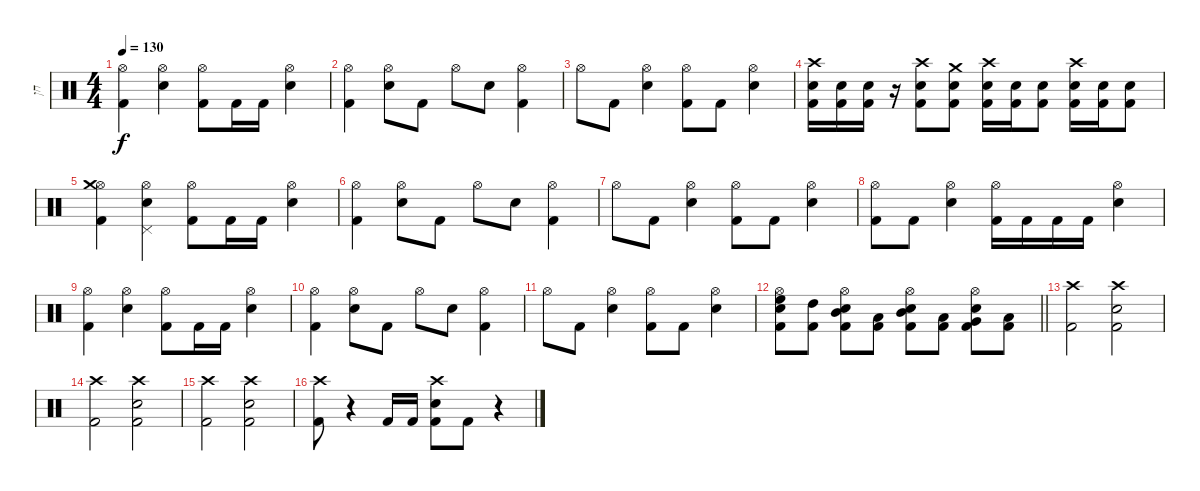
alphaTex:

\track ("חן" "חן") {instrument percussion}
\staff {score}
\articulation defaults
\ts (4 4)
\tempo 130
\clef neutral
\ks c
("Hi-Hat (open)" "Kick (hit) 2").4{dy f} ("Hi-Hat (open)" "Electric Snare (hit)").4 ("Hi-Hat (open)" "Kick (hit) 2").8 "Kick (hit) 2".16 "Kick (hit) 2".16 ("Hi-Hat (open)" "Electric Snare (hit)").4 |
("Hi-Hat (open)" "Kick (hit) 2").4 ("Hi-Hat (open)" "Electric Snare (hit)").8 "Kick (hit) 2".8 "Hi-Hat (open)".8 "Electric Snare (hit)".8 ("Hi-Hat (open)" "Kick (hit) 2").4 |
"Hi-Hat (open)".8 "Kick (hit) 2".8 ("Hi-Hat (open)" "Electric Snare (hit)").4 ("Hi-Hat (open)" "Kick (hit) 2").8 "Kick (hit) 2".8 ("Hi-Hat (open)" "Electric Snare (hit)").4 |
("Crash high (hit)" "Electric Snare (hit)" "Kick (hit) 2").16 ("Electric Snare (hit)" "Kick (hit) 2").16 ("Electric Snare (hit)" "Kick (hit) 2").16 r.16 ("Crash high (hit)" "Electric Snare (hit)" "Kick (hit) 2").8 ("Crash medium (hit)" "Electric Snare (hit)" "Kick (hit) 2").8 ("Crash high (hit)" "Electric Snare (hit)" "Kick (hit) 2").16 ("Electric Snare (hit)" "Kick (hit) 2").16 ("Electric Snare (hit)" "Kick (hit) 2").8 ("Crash high (hit)" "Electric Snare (hit)" "Kick (hit) 2").16 ("Electric Snare (hit)" "Kick (hit) 2").16 ("Electric Snare (hit)" "Kick (hit) 2").8 |
("Hi-Hat (open)" "Crash medium (hit)" "Kick (hit) 2").4 ("Hi-Hat (open)" "Electric Snare (hit)" "Pedal Hi-Hat (hit)").4 ("Hi-Hat (open)" "Kick (hit) 2").8 "Kick (hit) 2".16 "Kick (hit) 2".16 ("Hi-Hat (open)" "Electric Snare (hit)").4 |
("Hi-Hat (open)" "Kick (hit) 2").4 ("Hi-Hat (open)" "Electric Snare (hit)").8 "Kick (hit) 2".8 "Hi-Hat (open)".8 "Electric Snare (hit)".8 ("Hi-Hat (open)" "Kick (hit) 2").4 |
"Hi-Hat (open)".8 "Kick (hit) 2".8 ("Hi-Hat (open)" "Electric Snare (hit)").4 ("Hi-Hat (open)" "Kick (hit) 2").8 "Kick (hit) 2".8 ("Hi-Hat (open)" "Electric Snare (hit)").4 |
("Hi-Hat (open)" "Kick (hit) 2").8 "Kick (hit) 2".8 ("Hi-Hat (open)" "Electric Snare (hit)").4 ("Hi-Hat (open)" "Kick (hit) 2").16 "Kick (hit) 2".16 "Kick (hit) 2".16 "Kick (hit) 2".16 ("Hi-Hat (open)" "Electric Snare (hit)").4 |
("Hi-Hat (open)" "Kick (hit) 2").4 ("Hi-Hat (open)" "Electric Snare (hit)").4 ("Hi-Hat (open)" "Kick (hit) 2").8 "Kick (hit) 2".16 "Kick (hit) 2".16 ("Hi-Hat (open)" "Electric Snare (hit)").4 |
("Hi-Hat (open)" "Kick (hit) 2").4 ("Hi-Hat (open)" "Electric Snare (hit)").8 "Kick (hit) 2".8 "Hi-Hat (open)".8 "Electric Snare (hit)".8 ("Hi-Hat (open)" "Kick (hit) 2").4 |
"Hi-Hat (open)".8 "Kick (hit) 2".8 ("Hi-Hat (open)" "Electric Snare (hit)").4 ("Hi-Hat (open)" "Kick (hit) 2").8 "Kick (hit) 2".8 ("Hi-Hat (open)" "Electric Snare (hit)").4 |
\barLineRight lightlight
("Hi-Hat (open)" "Electric Snare (hit)" "High Floor Tom (hit)" "Kick (hit) 2").8 ("High Tom (hit)" "Kick (hit) 2").8 ("Hi-Hat (open)" "Electric Snare (hit)" "Mid Tom (hit)" "Kick (hit) 2").8 ("Low Tom (hit)" "Kick (hit) 2").8 ("Hi-Hat (open)" "Electric Snare (hit)" "Mid Tom (hit)" "Kick (hit) 2").8 ("Low Tom (hit)" "Kick (hit) 2").8 ("Hi-Hat (open)" "Electric Snare (hit)" "Very Low Tom (hit)" "Kick (hit) 2").8 ("Low Floor Tom (hit)" "Kick (hit) 2").8 |
("Crash high (hit)" "Kick (hit) 2").2 ("Crash high (hit)" "Electric Snare (hit)" "Kick (hit) 2").2 |
("Crash high (hit)" "Kick (hit) 2").2 ("Crash high (hit)" "Electric Snare (hit)" "Kick (hit) 2").2 |
("Crash high (hit)" "Kick (hit) 2").2 ("Crash high (hit)" "Electric Snare (hit)" "Kick (hit) 2").2 |
("Crash high (hit)" "Kick (hit) 2").8 r.4 "Kick (hit) 2".16 "Kick (hit) 2".16 ("Crash high (hit)" "Electric Snare (hit)" "Kick (hit) 2").8 "Kick (hit) 2".8 r.4
